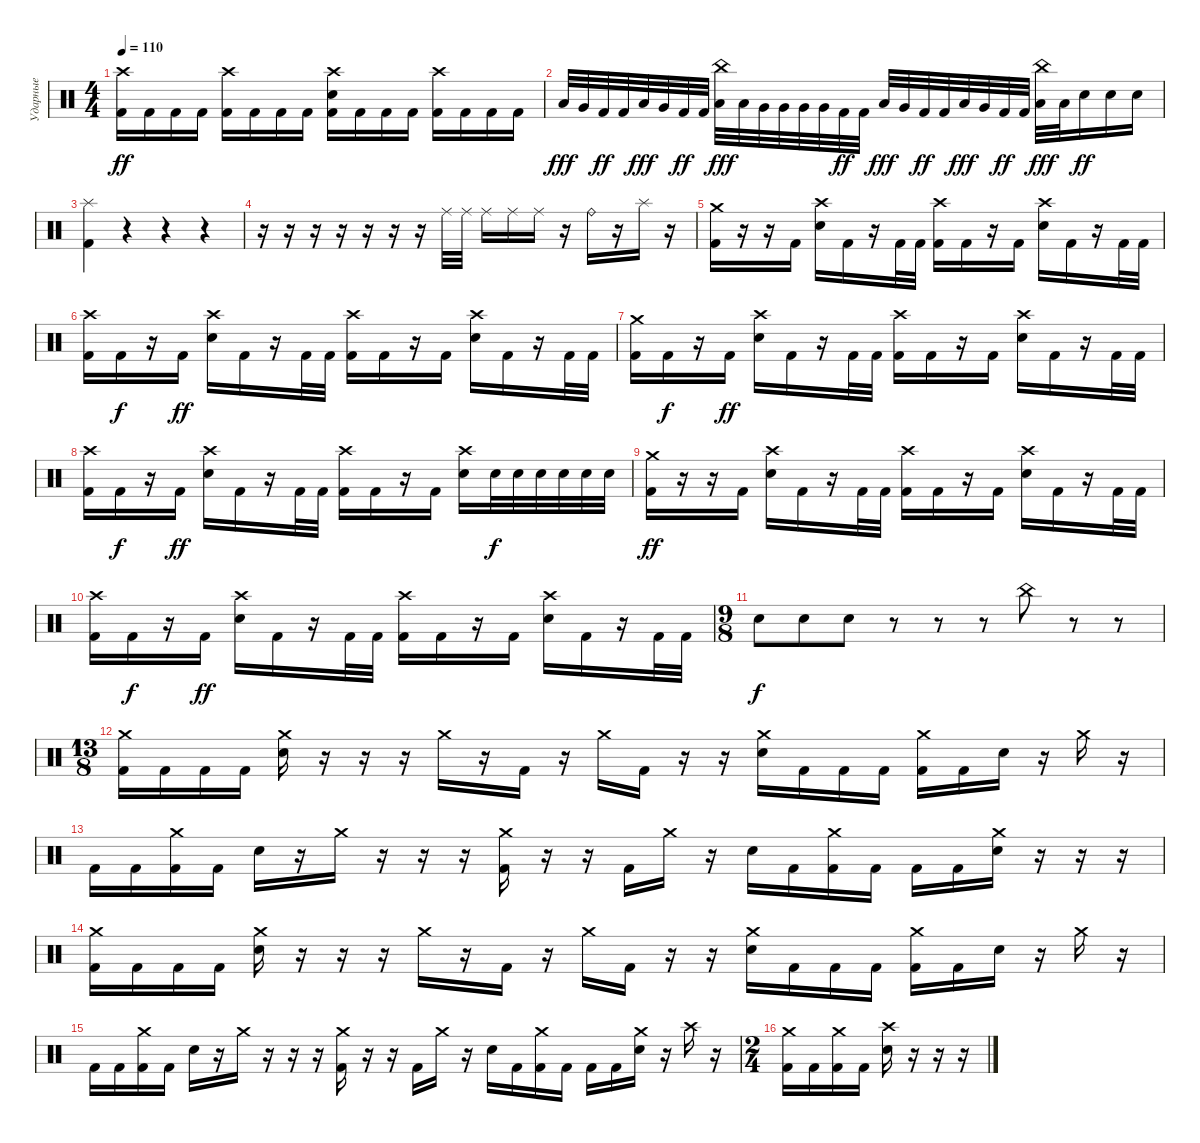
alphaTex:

\track ("Ударные" "Ударные") {instrument percussion}
\staff {score}
\articulation defaults
\ts (4 4)
\tempo 110
\clef neutral
\ks c
("Crash high (hit)" "Kick (hit) 2").16{dy ff} "Kick (hit) 2".16 "Kick (hit) 2".16 "Kick (hit) 2".16 ("Crash high (hit)" "Kick (hit) 2").16 "Kick (hit) 2".16 "Kick (hit) 2".16 "Kick (hit) 2".16 ("Crash high (hit)" "Electric Snare (hit)" "Kick (hit) 2").16 "Kick (hit) 2".16 "Kick (hit) 2".16 "Kick (hit) 2".16 ("Crash high (hit)" "Kick (hit) 2").16 "Kick (hit) 2".16 "Kick (hit) 2".16 "Kick (hit) 2".16 |
"Low Tom (hit)".32{dy fff} "Very Low Tom (hit)".32 "Kick (hit) 2".32{dy ff} "Kick (hit) 2".32 "Low Tom (hit)".32{dy fff} "Very Low Tom (hit)".32 "Kick (hit) 2".32{dy ff} "Kick (hit) 2".32 ("China (hit)" "Low Tom (hit)").32{dy fff} "Low Tom (hit)".32 "Very Low Tom (hit)".32 "Very Low Tom (hit)".32 "Very Low Tom (hit)".32 "Very Low Tom (hit)".32 "Kick (hit) 2".32{dy ff} "Kick (hit) 2".32 "Low Tom (hit)".32{dy fff} "Very Low Tom (hit)".32 "Kick (hit) 2".32{dy ff} "Kick (hit) 2".32 "Low Tom (hit)".32{dy fff} "Very Low Tom (hit)".32 "Kick (hit) 2".32{dy ff} "Kick (hit) 2".32 ("China (hit)" "Low Tom (hit)").32{dy fff} "Low Tom (hit)".32 "Electric Snare (hit)".16{dy ff} "Electric Snare (hit)".16 "Electric Snare (hit)".16 |
("Splash (hit)" "Kick (hit) 2").4 r.4 r.4 r.4 |
r.16 r.16 r.16 r.16 r.16 r.16 r.16 "Ride (middle)".32 "Ride (middle)".32 "Ride (middle)".16 "Ride (middle)".16 "Ride (middle)".16 r.16 "Ride (bell)".16 r.16 "Splash (hit)".16 r.16 |
("Crash medium (hit)" "Kick (hit) 2").16 r.16 r.16 "Kick (hit) 2".16 ("Crash high (hit)" "Electric Snare (hit)").16 "Kick (hit) 2".16 r.16 "Kick (hit) 2".32 "Kick (hit) 2".32 ("Crash high (hit)" "Kick (hit) 2").16 "Kick (hit) 2".16 r.16 "Kick (hit) 2".16 ("Crash high (hit)" "Electric Snare (hit)").16 "Kick (hit) 2".16 r.16 "Kick (hit) 2".32 "Kick (hit) 2".32 |
("Crash high (hit)" "Kick (hit) 2").16 "Kick (hit) 2".16{dy f} r.16 "Kick (hit) 2".16{dy ff} ("Crash high (hit)" "Electric Snare (hit)").16 "Kick (hit) 2".16 r.16 "Kick (hit) 2".32 "Kick (hit) 2".32 ("Crash high (hit)" "Kick (hit) 2").16 "Kick (hit) 2".16 r.16 "Kick (hit) 2".16 ("Crash high (hit)" "Electric Snare (hit)").16 "Kick (hit) 2".16 r.16 "Kick (hit) 2".32 "Kick (hit) 2".32 |
("Crash medium (hit)" "Kick (hit) 2").16 "Kick (hit) 2".16{dy f} r.16 "Kick (hit) 2".16{dy ff} ("Crash high (hit)" "Electric Snare (hit)").16 "Kick (hit) 2".16 r.16 "Kick (hit) 2".32 "Kick (hit) 2".32 ("Crash high (hit)" "Kick (hit) 2").16 "Kick (hit) 2".16 r.16 "Kick (hit) 2".16 ("Crash high (hit)" "Electric Snare (hit)").16 "Kick (hit) 2".16 r.16 "Kick (hit) 2".32 "Kick (hit) 2".32 |
("Crash high (hit)" "Kick (hit) 2").16 "Kick (hit) 2".16{dy f} r.16 "Kick (hit) 2".16{dy ff} ("Crash high (hit)" "Electric Snare (hit)").16 "Kick (hit) 2".16 r.16 "Kick (hit) 2".32 "Kick (hit) 2".32 ("Crash high (hit)" "Kick (hit) 2").16 "Kick (hit) 2".16 r.16 "Kick (hit) 2".16 ("Crash high (hit)" "Electric Snare (hit)").16 "Electric Snare (hit)".32{dy f} "Electric Snare (hit)".32 "Electric Snare (hit)".32 "Electric Snare (hit)".32 "Electric Snare (hit)".32 "Electric Snare (hit)".32 |
("Crash medium (hit)" "Kick (hit) 2").16{dy ff} r.16 r.16 "Kick (hit) 2".16 ("Crash high (hit)" "Electric Snare (hit)").16 "Kick (hit) 2".16 r.16 "Kick (hit) 2".32 "Kick (hit) 2".32 ("Crash high (hit)" "Kick (hit) 2").16 "Kick (hit) 2".16 r.16 "Kick (hit) 2".16 ("Crash high (hit)" "Electric Snare (hit)").16 "Kick (hit) 2".16 r.16 "Kick (hit) 2".32 "Kick (hit) 2".32 |
("Crash high (hit)" "Kick (hit) 2").16 "Kick (hit) 2".16{dy f} r.16 "Kick (hit) 2".16{dy ff} ("Crash high (hit)" "Electric Snare (hit)").16 "Kick (hit) 2".16 r.16 "Kick (hit) 2".32 "Kick (hit) 2".32 ("Crash high (hit)" "Kick (hit) 2").16 "Kick (hit) 2".16 r.16 "Kick (hit) 2".16 ("Crash high (hit)" "Electric Snare (hit)").16 "Kick (hit) 2".16 r.16 "Kick (hit) 2".32 "Kick (hit) 2".32 |
\ts (9 8)
"Electric Snare (hit)".8{dy f} "Electric Snare (hit)".8 "Electric Snare (hit)".8 r.8 r.8 r.8 "China (hit)".8 r.8 r.8 |
\ts (13 8)
("Crash medium (hit)" "Kick (hit) 2").16 "Kick (hit) 2".16 "Kick (hit) 2".16 "Kick (hit) 2".16 ("Crash medium (hit)" "Electric Snare (hit)").16 r.16 r.16 r.16 "Crash medium (hit)".16 r.16 "Kick (hit) 2".16 r.16 "Crash medium (hit)".16 "Kick (hit) 2".16 r.16 r.16 ("Crash medium (hit)" "Electric Snare (hit)").16 "Kick (hit) 2".16 "Kick (hit) 2".16 "Kick (hit) 2".16 ("Crash medium (hit)" "Kick (hit) 2").16 "Kick (hit) 2".16 "Electric Snare (hit)".16 r.16 "Crash medium (hit)".16 r.16 |
"Kick (hit) 2".16 "Kick (hit) 2".16 ("Crash medium (hit)" "Kick (hit) 2").16 "Kick (hit) 2".16 "Electric Snare (hit)".16 r.16 "Crash medium (hit)".16 r.16 r.16 r.16 ("Crash medium (hit)" "Kick (hit) 2").16 r.16 r.16 "Kick (hit) 2".16 "Crash medium (hit)".16 r.16 "Electric Snare (hit)".16 "Kick (hit) 2".16 ("Crash medium (hit)" "Kick (hit) 2").16 "Kick (hit) 2".16 "Kick (hit) 2".16 "Kick (hit) 2".16 ("Crash medium (hit)" "Electric Snare (hit)").16 r.16 r.16 r.16 |
("Crash medium (hit)" "Kick (hit) 2").16 "Kick (hit) 2".16 "Kick (hit) 2".16 "Kick (hit) 2".16 ("Crash medium (hit)" "Electric Snare (hit)").16 r.16 r.16 r.16 "Crash medium (hit)".16 r.16 "Kick (hit) 2".16 r.16 "Crash medium (hit)".16 "Kick (hit) 2".16 r.16 r.16 ("Crash medium (hit)" "Electric Snare (hit)").16 "Kick (hit) 2".16 "Kick (hit) 2".16 "Kick (hit) 2".16 ("Crash medium (hit)" "Kick (hit) 2").16 "Kick (hit) 2".16 "Electric Snare (hit)".16 r.16 "Crash medium (hit)".16 r.16 |
"Kick (hit) 2".16 "Kick (hit) 2".16 ("Crash medium (hit)" "Kick (hit) 2").16 "Kick (hit) 2".16 "Electric Snare (hit)".16 r.16 "Crash medium (hit)".16 r.16 r.16 r.16 ("Crash medium (hit)" "Kick (hit) 2").16 r.16 r.16 "Kick (hit) 2".16 "Crash medium (hit)".16 r.16 "Electric Snare (hit)".16 "Kick (hit) 2".16 ("Crash medium (hit)" "Kick (hit) 2").16 "Kick (hit) 2".16 "Kick (hit) 2".16 "Kick (hit) 2".16 ("Crash medium (hit)" "Electric Snare (hit)").16 r.16 "Crash high (hit)".16 r.16 |
\ts (2 4)
("Crash medium (hit)" "Kick (hit) 2").16 "Kick (hit) 2".16 ("Crash medium (hit)" "Kick (hit) 2").16 "Kick (hit) 2".16 ("Crash high (hit)" "Electric Snare (hit)").16 r.16 r.16 r.16
